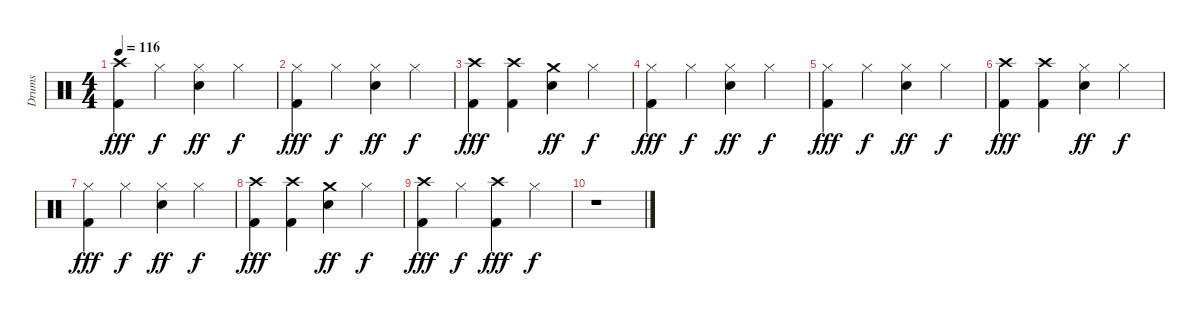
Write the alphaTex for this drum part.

\track ("Drums" "Drums") {instrument percussion}
\staff {score}
\articulation defaults
\ts (4 4)
\tempo 116
\clef neutral
\ks c
("Crash high (hit)" "Kick (hit) 2").4{dy fff} "Hi-Hat (closed)".4{dy f} ("Hi-Hat (closed)" "Electric Snare (hit)").4{dy ff} "Hi-Hat (closed)".4{dy f} |
("Hi-Hat (closed)" "Kick (hit) 2").4{dy fff} "Hi-Hat (closed)".4{dy f} ("Hi-Hat (closed)" "Electric Snare (hit)").4{dy ff} "Hi-Hat (closed)".4{dy f} |
("Crash high (hit)" "Kick (hit) 2").4{dy fff} ("Crash high (hit)" "Kick (hit) 2").4 ("Crash medium (hit)" "Electric Snare (hit)").4{dy ff} "Hi-Hat (closed)".4{dy f} |
("Hi-Hat (closed)" "Kick (hit) 2").4{dy fff} "Hi-Hat (closed)".4{dy f} ("Hi-Hat (closed)" "Electric Snare (hit)").4{dy ff} "Hi-Hat (closed)".4{dy f} |
("Hi-Hat (closed)" "Kick (hit) 2").4{dy fff} "Hi-Hat (closed)".4{dy f} ("Hi-Hat (closed)" "Electric Snare (hit)").4{dy ff} "Hi-Hat (closed)".4{dy f} |
("Crash high (hit)" "Kick (hit) 2").4{dy fff} ("Crash high (hit)" "Kick (hit) 2").4 ("Hi-Hat (closed)" "Electric Snare (hit)").4{dy ff} "Hi-Hat (closed)".4{dy f} |
("Hi-Hat (closed)" "Kick (hit) 2").4{dy fff} "Hi-Hat (closed)".4{dy f} ("Hi-Hat (closed)" "Electric Snare (hit)").4{dy ff} "Hi-Hat (closed)".4{dy f} |
("Crash high (hit)" "Kick (hit) 2").4{dy fff} ("Crash high (hit)" "Kick (hit) 2").4 ("Crash medium (hit)" "Electric Snare (hit)").4{dy ff} "Hi-Hat (closed)".4{dy f} |
("Crash high (hit)" "Kick (hit) 2").4{dy fff} "Hi-Hat (closed)".4{dy f} ("Crash high (hit)" "Kick (hit) 2").4{dy fff} "Hi-Hat (closed)".4{dy f} |
r.1
